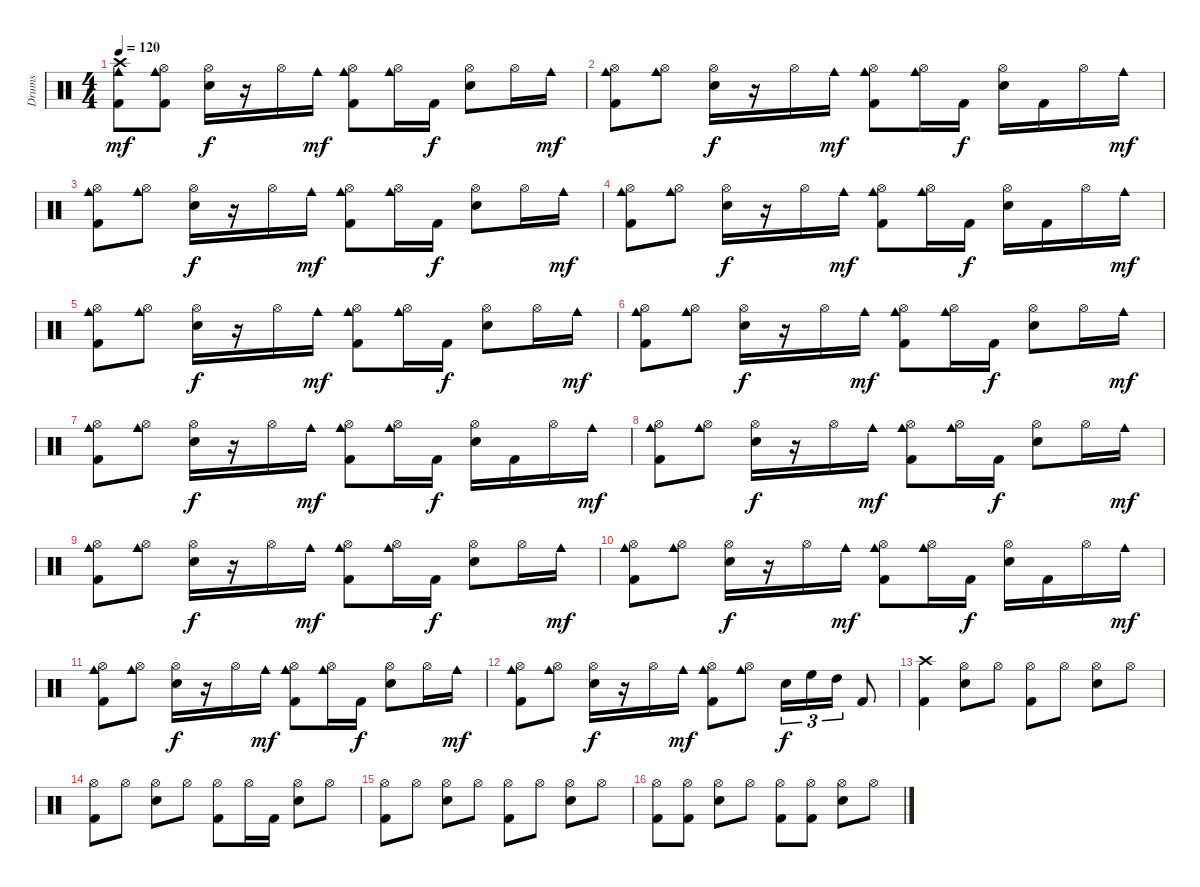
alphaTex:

\track ("Drums" "Drums") {instrument percussion}
\staff {score}
\articulation defaults
\ts (4 4)
\tempo 120
\clef neutral
\ks c
("Kick (hit) 2" "Crash high (hit)" "Cowbell medium (hit)").8{dy mf} ("Kick (hit) 2" "Hi-Hat (open)" "Cowbell medium (hit)").8 ("Snare (hit) 2" "Hi-Hat (open)").16{dy f} r.16 "Hi-Hat (open)".16 "Cowbell medium (hit)".16{dy mf} ("Kick (hit) 2" "Hi-Hat (open)" "Cowbell medium (hit)").8 ("Hi-Hat (open)" "Cowbell medium (hit)").16 "Kick (hit) 2".16{dy f} ("Snare (hit) 2" "Hi-Hat (open)").8 "Hi-Hat (open)".16 "Cowbell medium (hit)".16{dy mf} |
("Kick (hit) 2" "Hi-Hat (open)" "Cowbell medium (hit)").8 ("Hi-Hat (open)" "Cowbell medium (hit)").8 ("Snare (hit) 2" "Hi-Hat (open)").16{dy f} r.16 "Hi-Hat (open)".16 "Cowbell medium (hit)".16{dy mf} ("Kick (hit) 2" "Hi-Hat (open)" "Cowbell medium (hit)").8 ("Hi-Hat (open)" "Cowbell medium (hit)").16 "Kick (hit) 2".16{dy f} ("Snare (hit) 2" "Hi-Hat (open)").16 "Kick (hit) 2".16 "Hi-Hat (open)".16 "Cowbell medium (hit)".16{dy mf} |
("Kick (hit) 2" "Hi-Hat (open)" "Cowbell medium (hit)").8 ("Hi-Hat (open)" "Cowbell medium (hit)").8 ("Snare (hit) 2" "Hi-Hat (open)").16{dy f} r.16 "Hi-Hat (open)".16 "Cowbell medium (hit)".16{dy mf} ("Kick (hit) 2" "Hi-Hat (open)" "Cowbell medium (hit)").8 ("Hi-Hat (open)" "Cowbell medium (hit)").16 "Kick (hit) 2".16{dy f} ("Snare (hit) 2" "Hi-Hat (open)").8 "Hi-Hat (open)".16 "Cowbell medium (hit)".16{dy mf} |
("Kick (hit) 2" "Hi-Hat (open)" "Cowbell medium (hit)").8 ("Hi-Hat (open)" "Cowbell medium (hit)").8 ("Snare (hit) 2" "Hi-Hat (open)").16{dy f} r.16 "Hi-Hat (open)".16 "Cowbell medium (hit)".16{dy mf} ("Kick (hit) 2" "Hi-Hat (open)" "Cowbell medium (hit)").8 ("Hi-Hat (open)" "Cowbell medium (hit)").16 "Kick (hit) 2".16{dy f} ("Snare (hit) 2" "Hi-Hat (open)").16 "Kick (hit) 2".16 "Hi-Hat (open)".16 "Cowbell medium (hit)".16{dy mf} |
("Kick (hit) 2" "Hi-Hat (open)" "Cowbell medium (hit)").8 ("Hi-Hat (open)" "Cowbell medium (hit)").8 ("Snare (hit) 2" "Hi-Hat (open)").16{dy f} r.16 "Hi-Hat (open)".16 "Cowbell medium (hit)".16{dy mf} ("Kick (hit) 2" "Hi-Hat (open)" "Cowbell medium (hit)").8 ("Hi-Hat (open)" "Cowbell medium (hit)").16 "Kick (hit) 2".16{dy f} ("Snare (hit) 2" "Hi-Hat (open)").8 "Hi-Hat (open)".16 "Cowbell medium (hit)".16{dy mf} |
("Kick (hit) 2" "Hi-Hat (open)" "Cowbell medium (hit)").8 ("Hi-Hat (open)" "Cowbell medium (hit)").8 ("Snare (hit) 2" "Hi-Hat (open)").16{dy f} r.16 "Hi-Hat (open)".16 "Cowbell medium (hit)".16{dy mf} ("Kick (hit) 2" "Hi-Hat (open)" "Cowbell medium (hit)").8 ("Hi-Hat (open)" "Cowbell medium (hit)").16 "Kick (hit) 2".16{dy f} ("Snare (hit) 2" "Hi-Hat (open)").8 "Hi-Hat (open)".16 "Cowbell medium (hit)".16{dy mf} |
("Kick (hit) 2" "Hi-Hat (open)" "Cowbell medium (hit)").8 ("Hi-Hat (open)" "Cowbell medium (hit)").8 ("Snare (hit) 2" "Hi-Hat (open)").16{dy f} r.16 "Hi-Hat (open)".16 "Cowbell medium (hit)".16{dy mf} ("Kick (hit) 2" "Hi-Hat (open)" "Cowbell medium (hit)").8 ("Hi-Hat (open)" "Cowbell medium (hit)").16 "Kick (hit) 2".16{dy f} ("Snare (hit) 2" "Hi-Hat (open)").16 "Kick (hit) 2".16 "Hi-Hat (open)".16 "Cowbell medium (hit)".16{dy mf} |
("Kick (hit) 2" "Hi-Hat (open)" "Cowbell medium (hit)").8 ("Hi-Hat (open)" "Cowbell medium (hit)").8 ("Snare (hit) 2" "Hi-Hat (open)").16{dy f} r.16 "Hi-Hat (open)".16 "Cowbell medium (hit)".16{dy mf} ("Kick (hit) 2" "Hi-Hat (open)" "Cowbell medium (hit)").8 ("Hi-Hat (open)" "Cowbell medium (hit)").16 "Kick (hit) 2".16{dy f} ("Snare (hit) 2" "Hi-Hat (open)").8 "Hi-Hat (open)".16 "Cowbell medium (hit)".16{dy mf} |
("Kick (hit) 2" "Hi-Hat (open)" "Cowbell medium (hit)").8 ("Hi-Hat (open)" "Cowbell medium (hit)").8 ("Snare (hit) 2" "Hi-Hat (open)").16{dy f} r.16 "Hi-Hat (open)".16 "Cowbell medium (hit)".16{dy mf} ("Kick (hit) 2" "Hi-Hat (open)" "Cowbell medium (hit)").8 ("Hi-Hat (open)" "Cowbell medium (hit)").16 "Kick (hit) 2".16{dy f} ("Snare (hit) 2" "Hi-Hat (open)").8 "Hi-Hat (open)".16 "Cowbell medium (hit)".16{dy mf} |
("Kick (hit) 2" "Hi-Hat (open)" "Cowbell medium (hit)").8 ("Hi-Hat (open)" "Cowbell medium (hit)").8 ("Snare (hit) 2" "Hi-Hat (open)").16{dy f} r.16 "Hi-Hat (open)".16 "Cowbell medium (hit)".16{dy mf} ("Kick (hit) 2" "Hi-Hat (open)" "Cowbell medium (hit)").8 ("Hi-Hat (open)" "Cowbell medium (hit)").16 "Kick (hit) 2".16{dy f} ("Snare (hit) 2" "Hi-Hat (open)").16 "Kick (hit) 2".16 "Hi-Hat (open)".16 "Cowbell medium (hit)".16{dy mf} |
("Kick (hit) 2" "Hi-Hat (open)" "Cowbell medium (hit)").8 ("Hi-Hat (open)" "Cowbell medium (hit)").8 ("Snare (hit) 2" "Hi-Hat (open)").16{dy f} r.16 "Hi-Hat (open)".16 "Cowbell medium (hit)".16{dy mf} ("Kick (hit) 2" "Hi-Hat (open)" "Cowbell medium (hit)").8 ("Hi-Hat (open)" "Cowbell medium (hit)").16 "Kick (hit) 2".16{dy f} ("Snare (hit) 2" "Hi-Hat (open)").8 "Hi-Hat (open)".16 "Cowbell medium (hit)".16{dy mf} |
("Kick (hit) 2" "Hi-Hat (open)" "Cowbell medium (hit)").8 ("Hi-Hat (open)" "Cowbell medium (hit)").8 ("Snare (hit) 2" "Hi-Hat (open)").16{dy f} r.16 "Hi-Hat (open)".16 "Cowbell medium (hit)".16{dy mf} ("Kick (hit) 2" "Hi-Hat (open)" "Cowbell medium (hit)").8 ("Hi-Hat (open)" "Cowbell medium (hit)").8 "Snare (hit) 2".16{tu (3 2) dy f} "High Floor Tom (hit)".16{tu (3 2)} "High Tom (hit)".16{tu (3 2)} "Kick (hit) 2".8 |
("Kick (hit) 2" "Crash high (hit)").4 ("Snare (hit) 2" "Hi-Hat (open)").8 "Hi-Hat (open)".8 ("Kick (hit) 2" "Hi-Hat (open)").8 "Hi-Hat (open)".8 ("Snare (hit) 2" "Hi-Hat (open)").8 "Hi-Hat (open)".8 |
("Kick (hit) 2" "Hi-Hat (open)").8 "Hi-Hat (open)".8 ("Snare (hit) 2" "Hi-Hat (open)").8 "Hi-Hat (open)".8 ("Kick (hit) 2" "Hi-Hat (open)").8 "Hi-Hat (open)".16 "Kick (hit) 2".16 ("Snare (hit) 2" "Hi-Hat (open)").8 "Hi-Hat (open)".8 |
("Kick (hit) 2" "Hi-Hat (open)").8 "Hi-Hat (open)".8 ("Snare (hit) 2" "Hi-Hat (open)").8 "Hi-Hat (open)".8 ("Kick (hit) 2" "Hi-Hat (open)").8 "Hi-Hat (open)".8 ("Snare (hit) 2" "Hi-Hat (open)").8 "Hi-Hat (open)".8 |
("Kick (hit) 2" "Hi-Hat (open)").8 ("Kick (hit) 2" "Hi-Hat (open)").8 ("Snare (hit) 2" "Hi-Hat (open)").8 "Hi-Hat (open)".8 ("Kick (hit) 2" "Hi-Hat (open)").8 ("Kick (hit) 2" "Hi-Hat (open)").8 ("Snare (hit) 2" "Hi-Hat (open)").8 "Hi-Hat (open)".8
